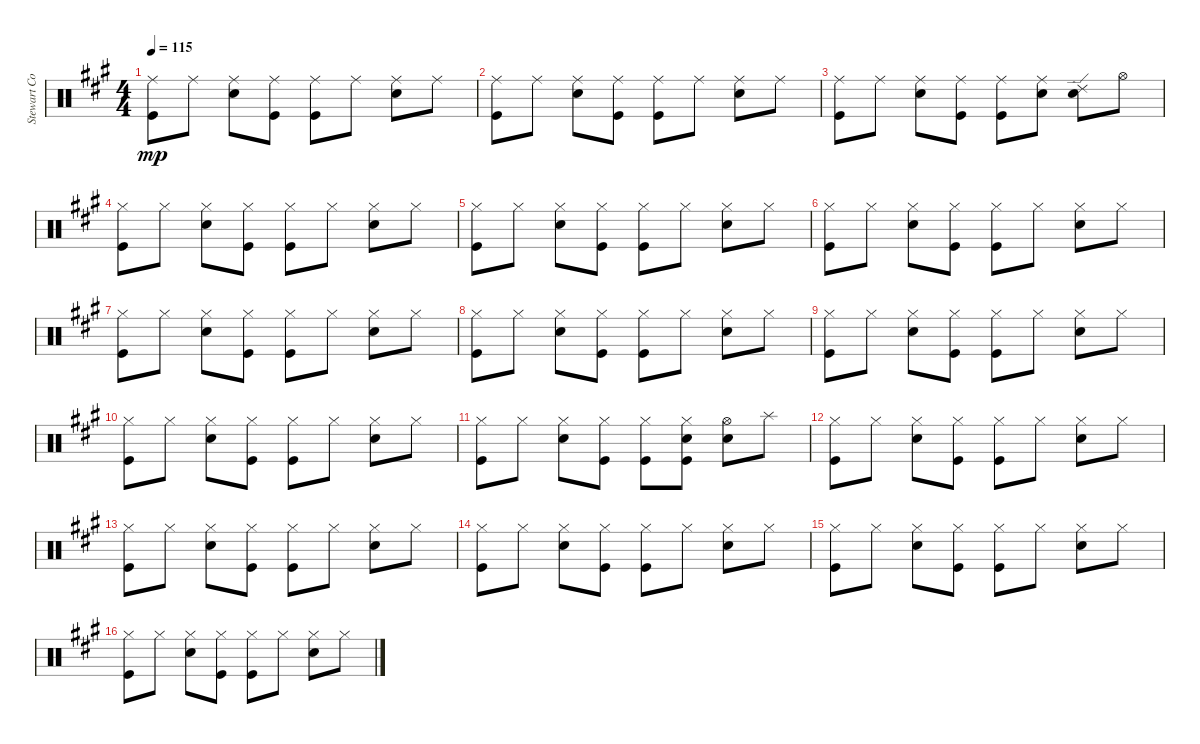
\track ("Stewart Copeland" "Stewart Co") {instrument percussion}
\staff {score}
\articulation defaults
\ts (4 4)
\tempo 115
\clef neutral
\ks a
("Kick (hit)" "Ride (middle)").8{dy mp} "Ride (middle)".8 ("Snare (hit) 2" "Ride (middle)").8 ("Kick (hit)" "Ride (middle)").8 ("Kick (hit)" "Ride (middle)").8 "Ride (middle)".8 ("Snare (hit) 2" "Ride (middle)").8 "Ride (middle)".8 |
("Kick (hit)" "Ride (middle)").8 "Ride (middle)".8 ("Snare (hit) 2" "Ride (middle)").8 ("Kick (hit)" "Ride (middle)").8 ("Kick (hit)" "Ride (middle)").8 "Ride (middle)".8 ("Snare (hit) 2" "Ride (middle)").8 "Ride (middle)".8 |
("Kick (hit)" "Ride (middle)").8 "Ride (middle)".8 ("Snare (hit) 2" "Ride (middle)").8 ("Kick (hit)" "Ride (middle)").8 ("Kick (hit)" "Ride (middle)").8 ("Ride (middle)" "Snare (hit) 2").8 ("Snare (hit) 2" "Ride (edge) 2").8 "Hi-Hat (open)".8 |
("Kick (hit)" "Hi-Hat (closed)").8 "Hi-Hat (closed)".8 ("Snare (hit) 2" "Hi-Hat (closed)").8 ("Kick (hit)" "Hi-Hat (closed)").8 ("Kick (hit)" "Hi-Hat (closed)").8 "Hi-Hat (closed)".8 ("Snare (hit) 2" "Hi-Hat (closed)").8 "Hi-Hat (closed)".8 |
("Kick (hit)" "Hi-Hat (closed)").8 "Hi-Hat (closed)".8 ("Snare (hit) 2" "Hi-Hat (closed)").8 ("Kick (hit)" "Hi-Hat (closed)").8 ("Kick (hit)" "Hi-Hat (closed)").8 "Hi-Hat (closed)".8 ("Snare (hit) 2" "Hi-Hat (closed)").8 "Hi-Hat (closed)".8 |
("Kick (hit)" "Hi-Hat (closed)").8 "Hi-Hat (closed)".8 ("Snare (hit) 2" "Hi-Hat (closed)").8 ("Kick (hit)" "Hi-Hat (closed)").8 ("Kick (hit)" "Hi-Hat (closed)").8 "Hi-Hat (closed)".8 ("Snare (hit) 2" "Hi-Hat (closed)").8 "Hi-Hat (closed)".8 |
("Kick (hit)" "Hi-Hat (closed)").8 "Hi-Hat (closed)".8 ("Snare (hit) 2" "Hi-Hat (closed)").8 ("Kick (hit)" "Hi-Hat (closed)").8 ("Kick (hit)" "Hi-Hat (closed)").8 "Hi-Hat (closed)".8 ("Snare (hit) 2" "Hi-Hat (closed)").8 "Hi-Hat (closed)".8 |
("Kick (hit)" "Hi-Hat (closed)").8 "Hi-Hat (closed)".8 ("Snare (hit) 2" "Hi-Hat (closed)").8 ("Kick (hit)" "Hi-Hat (closed)").8 ("Kick (hit)" "Hi-Hat (closed)").8 "Hi-Hat (closed)".8 ("Snare (hit) 2" "Hi-Hat (closed)").8 "Hi-Hat (closed)".8 |
("Kick (hit)" "Hi-Hat (closed)").8 "Hi-Hat (closed)".8 ("Snare (hit) 2" "Hi-Hat (closed)").8 ("Kick (hit)" "Hi-Hat (closed)").8 ("Kick (hit)" "Hi-Hat (closed)").8 "Hi-Hat (closed)".8 ("Snare (hit) 2" "Hi-Hat (closed)").8 "Hi-Hat (closed)".8 |
("Kick (hit)" "Hi-Hat (closed)").8 "Hi-Hat (closed)".8 ("Snare (hit) 2" "Hi-Hat (closed)").8 ("Kick (hit)" "Hi-Hat (closed)").8 ("Kick (hit)" "Hi-Hat (closed)").8 "Hi-Hat (closed)".8 ("Snare (hit) 2" "Hi-Hat (closed)").8 "Hi-Hat (closed)".8 |
("Kick (hit)" "Hi-Hat (closed)").8 "Hi-Hat (closed)".8 ("Snare (hit) 2" "Hi-Hat (closed)").8 ("Kick (hit)" "Hi-Hat (closed)").8 ("Kick (hit)" "Hi-Hat (closed)").8 ("Snare (hit) 2" "Kick (hit)" "Hi-Hat (closed)").8 ("Snare (hit) 2" "Hi-Hat (open)").8 "Splash (hit)".8 |
("Kick (hit)" "Hi-Hat (closed)").8 "Hi-Hat (closed)".8 ("Snare (hit) 2" "Hi-Hat (closed)").8 ("Kick (hit)" "Hi-Hat (closed)").8 ("Kick (hit)" "Hi-Hat (closed)").8 "Hi-Hat (closed)".8 ("Snare (hit) 2" "Hi-Hat (closed)").8 "Hi-Hat (closed)".8 |
("Kick (hit)" "Hi-Hat (closed)").8 "Hi-Hat (closed)".8 ("Snare (hit) 2" "Hi-Hat (closed)").8 ("Kick (hit)" "Hi-Hat (closed)").8 ("Kick (hit)" "Hi-Hat (closed)").8 "Hi-Hat (closed)".8 ("Snare (hit) 2" "Hi-Hat (closed)").8 "Hi-Hat (closed)".8 |
("Kick (hit)" "Hi-Hat (closed)").8 "Hi-Hat (closed)".8 ("Snare (hit) 2" "Hi-Hat (closed)").8 ("Kick (hit)" "Hi-Hat (closed)").8 ("Kick (hit)" "Hi-Hat (closed)").8 "Hi-Hat (closed)".8 ("Snare (hit) 2" "Hi-Hat (closed)").8 "Hi-Hat (closed)".8 |
("Kick (hit)" "Hi-Hat (closed)").8 "Hi-Hat (closed)".8 ("Snare (hit) 2" "Hi-Hat (closed)").8 ("Kick (hit)" "Hi-Hat (closed)").8 ("Kick (hit)" "Hi-Hat (closed)").8 "Hi-Hat (closed)".8 ("Snare (hit) 2" "Hi-Hat (closed)").8 "Hi-Hat (closed)".8 |
("Kick (hit)" "Hi-Hat (closed)").8 "Hi-Hat (closed)".8 ("Snare (hit) 2" "Hi-Hat (closed)").8 ("Kick (hit)" "Hi-Hat (closed)").8 ("Kick (hit)" "Hi-Hat (closed)").8 "Hi-Hat (closed)".8 ("Snare (hit) 2" "Hi-Hat (closed)").8 "Hi-Hat (closed)".8
